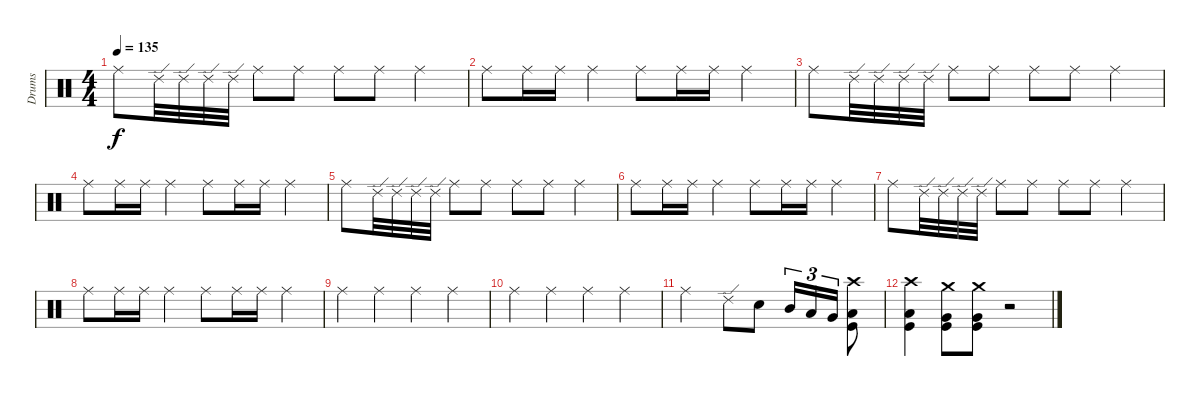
\track ("Drums" "Drums") {instrument percussion}
\staff {score}
\articulation defaults
\ts (4 4)
\tempo 135
\clef neutral
\ks c "Ride (middle)".8{dy f} "Ride (edge) 2".32 "Ride (edge) 2".32 "Ride (edge) 2".32 "Ride (edge) 2".32 "Ride (middle)".8 "Ride (middle)".8 "Ride (middle)".8 "Ride (middle)".8 "Ride (middle)".4
|
"Ride (middle)".8 "Ride (middle)".16 "Ride (middle)".16 "Ride (middle)".4 "Ride (middle)".8 "Ride (middle)".16 "Ride (middle)".16 "Ride (middle)".4 |
"Ride (middle)".8 "Ride (edge) 2".32 "Ride (edge) 2".32 "Ride (edge) 2".32 "Ride (edge) 2".32 "Ride (middle)".8 "Ride (middle)".8 "Ride (middle)".8 "Ride (middle)".8 "Ride (middle)".4 |
"Ride (middle)".8 "Ride (middle)".16 "Ride (middle)".16 "Ride (middle)".4 "Ride (middle)".8 "Ride (middle)".16 "Ride (middle)".16 "Ride (middle)".4 |
"Ride (middle)".8 "Ride (edge) 2".32 "Ride (edge) 2".32 "Ride (edge) 2".32 "Ride (edge) 2".32 "Ride (middle)".8 "Ride (middle)".8 "Ride (middle)".8 "Ride (middle)".8 "Ride (middle)".4 |
"Ride (middle)".8 "Ride (middle)".16 "Ride (middle)".16 "Ride (middle)".4 "Ride (middle)".8 "Ride (middle)".16 "Ride (middle)".16 "Ride (middle)".4 |
"Ride (middle)".8 "Ride (edge) 2".32 "Ride (edge) 2".32 "Ride (edge) 2".32 "Ride (edge) 2".32 "Ride (middle)".8 "Ride (middle)".8 "Ride (middle)".8 "Ride (middle)".8 "Ride (middle)".4 |
"Ride (middle)".8 "Ride (middle)".16 "Ride (middle)".16 "Ride (middle)".4 "Ride (middle)".8 "Ride (middle)".16 "Ride (middle)".16 "Ride (middle)".4 |
"Ride (middle)".4 "Ride (middle)".4 "Ride (middle)".4 "Ride (middle)".4 |
"Ride (middle)".4 "Ride (middle)".4 "Ride (middle)".4 "Ride (middle)".4 |
"Ride (middle)".2 "Ride (edge) 2".8 "Snare (hit) 2".8 "Mid Tom (hit)".16{tu (3 2)} "Low Tom (hit)".16{tu (3 2)} "Very Low Tom (hit)".16{tu (3 2)} ("Crash high (hit)" "Low Floor Tom (hit)" "Kick (hit)").8 |
("Crash high (hit)" "Low Floor Tom (hit)" "Kick (hit)").4 ("Crash medium (hit)" "Very Low Tom (hit)" "Kick (hit)").8 ("Crash medium (hit)" "Very Low Tom (hit)" "Kick (hit)").8 r.2
